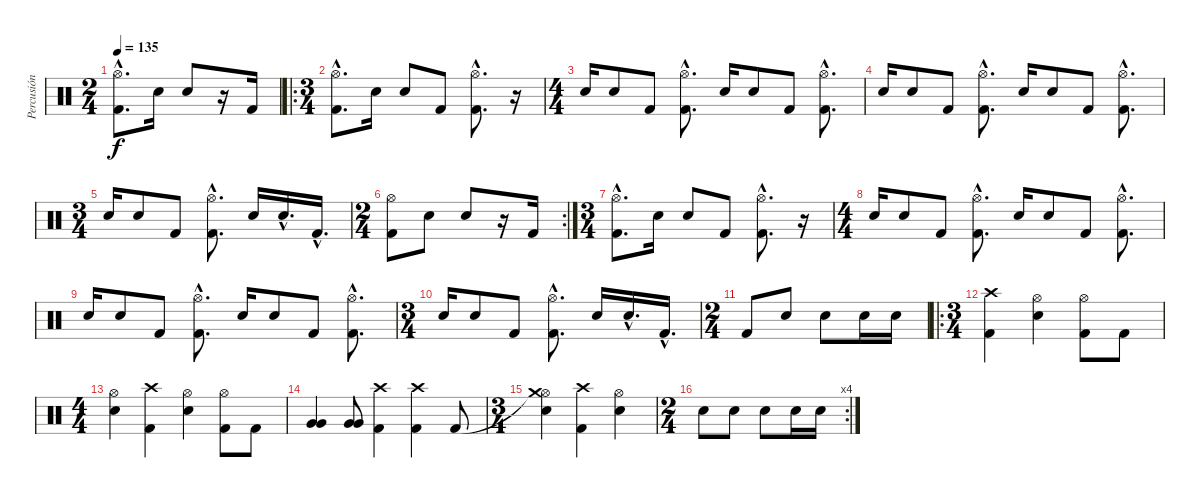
\track ("Percusión" "Percusión") {instrument percussion}
\staff {score}
\articulation defaults
\ts (2 4)
\tempo 135
\clef neutral
\ks c
("Hi-Hat (open)"{hac} "Kick (hit) 2"{hac}).8{d dy f} "Electric Snare (hit)".16 "Electric Snare (hit)".8 r.16 "Kick (hit) 2".16 |
\ro
\ts (3 4)
("Hi-Hat (open)"{hac} "Kick (hit) 2"{hac}).8{d} "Electric Snare (hit)".16 "Electric Snare (hit)".8 "Kick (hit) 2".8 ("Hi-Hat (open)"{hac} "Kick (hit) 2"{hac}).8{d} r.16 |
\ts (4 4)
"Electric Snare (hit)".16 "Electric Snare (hit)".8 "Kick (hit) 2".8 ("Hi-Hat (open)"{hac} "Kick (hit) 2"{hac}).8{d} "Electric Snare (hit)".16 "Electric Snare (hit)".8 "Kick (hit) 2".8 ("Hi-Hat (open)"{hac} "Kick (hit) 2"{hac}).8{d} |
"Electric Snare (hit)".16 "Electric Snare (hit)".8 "Kick (hit) 2".8 ("Hi-Hat (open)"{hac} "Kick (hit) 2"{hac}).8{d} "Electric Snare (hit)".16 "Electric Snare (hit)".8 "Kick (hit) 2".8 ("Hi-Hat (open)"{hac} "Kick (hit) 2"{hac}).8{d} |
\ts (3 4)
"Electric Snare (hit)".16 "Electric Snare (hit)".8 "Kick (hit) 2".8 ("Hi-Hat (open)"{hac} "Kick (hit) 2"{hac}).8{d} "Electric Snare (hit)".16 "Electric Snare (hit)"{hac}.16{d} "Kick (hit) 2"{hac}.16{d} |
\rc 2
\ts (2 4)
("Hi-Hat (open)" "Kick (hit) 2").8 "Electric Snare (hit)".8 "Electric Snare (hit)".8 r.16 "Kick (hit) 2".16 |
\ts (3 4)
("Hi-Hat (open)"{hac} "Kick (hit) 2"{hac}).8{d} "Electric Snare (hit)".16 "Electric Snare (hit)".8 "Kick (hit) 2".8 ("Hi-Hat (open)"{hac} "Kick (hit) 2"{hac}).8{d} r.16 |
\ts (4 4)
"Electric Snare (hit)".16 "Electric Snare (hit)".8 "Kick (hit) 2".8 ("Hi-Hat (open)"{hac} "Kick (hit) 2"{hac}).8{d} "Electric Snare (hit)".16 "Electric Snare (hit)".8 "Kick (hit) 2".8 ("Hi-Hat (open)"{hac} "Kick (hit) 2"{hac}).8{d} |
"Electric Snare (hit)".16 "Electric Snare (hit)".8 "Kick (hit) 2".8 ("Hi-Hat (open)"{hac} "Kick (hit) 2"{hac}).8{d} "Electric Snare (hit)".16 "Electric Snare (hit)".8 "Kick (hit) 2".8 ("Hi-Hat (open)"{hac} "Kick (hit) 2"{hac}).8{d} |
\ts (3 4)
"Electric Snare (hit)".16 "Electric Snare (hit)".8 "Kick (hit) 2".8 ("Hi-Hat (open)"{hac} "Kick (hit) 2"{hac}).8{d} "Electric Snare (hit)".16 "Electric Snare (hit)"{hac}.16{d} "Kick (hit) 2"{hac}.16{d} |
\ts (2 4)
"Kick (hit) 2".8 "Electric Snare (hit)".8 "Electric Snare (hit)".8 "Electric Snare (hit)".16 "Electric Snare (hit)".16 |
\ro
\ts (3 4)
("Crash high (hit)" "Kick (hit) 2").4 ("Hi-Hat (open)" "Electric Snare (hit)").4 ("Hi-Hat (open)" "Kick (hit) 2").8 "Kick (hit) 2".8 |
\ts (4 4)
("Hi-Hat (open)" "Electric Snare (hit)").4 ("Crash high (hit)" "Kick (hit) 2").4 ("Hi-Hat (open)" "Electric Snare (hit)").4 ("Hi-Hat (open)" "Kick (hit) 2").8 "Kick (hit) 2".8 |
("Very Low Tom (hit)" "Very Low Tom (hit)").4 ("Very Low Tom (hit)" "Very Low Tom (hit)").8 ("Crash high (hit)" "Kick (hit) 2").4 ("Crash high (hit)" "Kick (hit) 2").4 "Kick (hit) 2".8 |
\ts (3 4)
("Hi-Hat (open)"{t} "Crash medium (hit)" "Electric Snare (hit)").4 ("Crash high (hit)" "Kick (hit) 2").4 ("Hi-Hat (open)" "Electric Snare (hit)").4 |
\rc 4
\ts (2 4)
"Electric Snare (hit)".8 "Electric Snare (hit)".8 "Electric Snare (hit)".8 "Electric Snare (hit)".16 "Electric Snare (hit)".16
